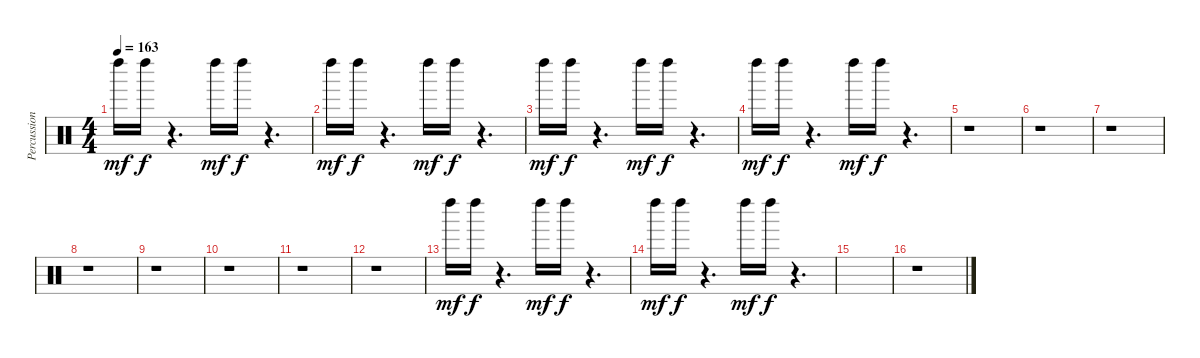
\track ("Percussion" "Percussion") {instrument percussion}
\staff {score}
\articulation defaults
\ts (4 4)
\tempo 163
\clef neutral
\ks c "Left Maraca (hit)".16{dy mf} "Left Maraca (hit)".16{dy f}
r.4{d} "Left Maraca (hit)".16{dy mf} "Left Maraca (hit)".16{dy f} r.4{d} |
"Left Maraca (hit)".16{dy mf} "Left Maraca (hit)".16{dy f} r.4{d} "Left Maraca (hit)".16{dy mf} "Left Maraca (hit)".16{dy f} r.4{d} |
"Left Maraca (hit)".16{dy mf} "Left Maraca (hit)".16{dy f} r.4{d} "Left Maraca (hit)".16{dy mf} "Left Maraca (hit)".16{dy f} r.4{d} |
"Left Maraca (hit)".16{dy mf} "Left Maraca (hit)".16{dy f} r.4{d} "Left Maraca (hit)".16{dy mf} "Left Maraca (hit)".16{dy f} r.4{d} |
r.1 |
r.1 |
r.1 |
r.1 |
r.1 |
r.1 |
r.1 |
r.1 |
"Left Maraca (hit)".16{dy mf} "Left Maraca (hit)".16{dy f} r.4{d} "Left Maraca (hit)".16{dy mf} "Left Maraca (hit)".16{dy f} r.4{d} |
"Left Maraca (hit)".16{dy mf} "Left Maraca (hit)".16{dy f} r.4{d} "Left Maraca (hit)".16{dy mf} "Left Maraca (hit)".16{dy f} r.4{d} |
|
r.1
